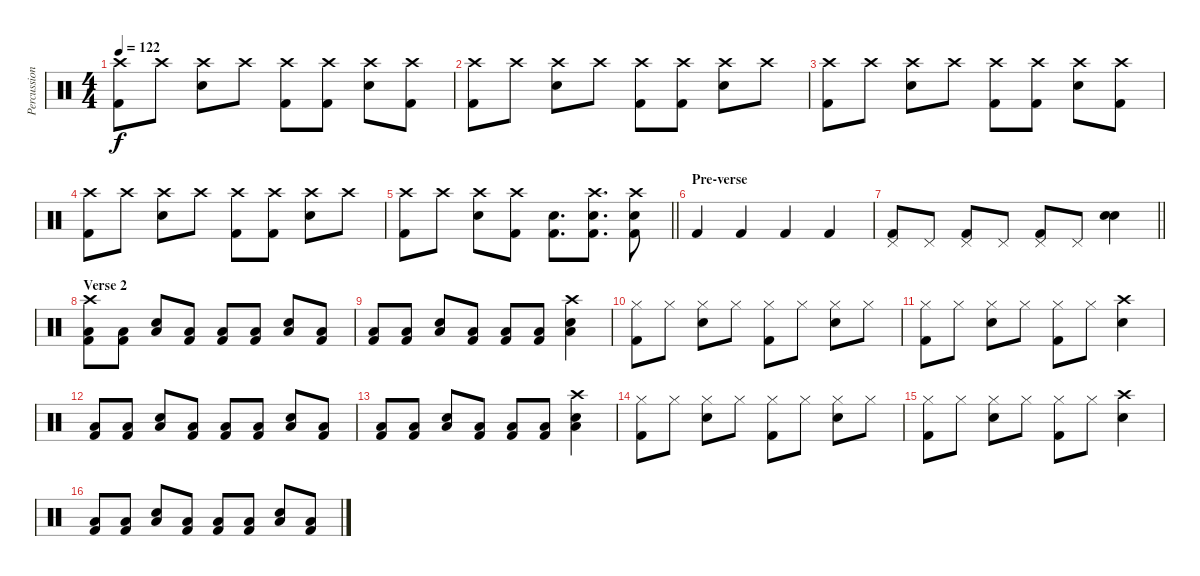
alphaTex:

\track ("Percussion" "Percussion") {instrument percussion}
\staff {score}
\articulation defaults
\ts (4 4)
\tempo 122
\clef neutral
\ks c
("Crash high (hit)" "Kick (hit) 2").8{dy f} "Crash high (hit)".8 ("Crash high (hit)" "Electric Snare (hit)").8 "Crash high (hit)".8 ("Crash high (hit)" "Kick (hit) 2").8 ("Crash high (hit)" "Kick (hit) 2").8 ("Crash high (hit)" "Electric Snare (hit)").8 ("Crash high (hit)" "Kick (hit) 2").8 |
("Crash high (hit)" "Kick (hit) 2").8 "Crash high (hit)".8 ("Crash high (hit)" "Electric Snare (hit)").8 "Crash high (hit)".8 ("Crash high (hit)" "Kick (hit) 2").8 ("Crash high (hit)" "Kick (hit) 2").8 ("Crash high (hit)" "Electric Snare (hit)").8 "Crash high (hit)".8 |
("Crash high (hit)" "Kick (hit) 2").8 "Crash high (hit)".8 ("Crash high (hit)" "Electric Snare (hit)").8 "Crash high (hit)".8 ("Crash high (hit)" "Kick (hit) 2").8 ("Crash high (hit)" "Kick (hit) 2").8 ("Crash high (hit)" "Electric Snare (hit)").8 ("Crash high (hit)" "Kick (hit) 2").8 |
("Crash high (hit)" "Kick (hit) 2").8 "Crash high (hit)".8 ("Crash high (hit)" "Electric Snare (hit)").8 "Crash high (hit)".8 ("Crash high (hit)" "Kick (hit) 2").8 ("Crash high (hit)" "Kick (hit) 2").8 ("Crash high (hit)" "Electric Snare (hit)").8 "Crash high (hit)".8 |
\barLineRight lightlight
("Crash high (hit)" "Kick (hit) 2").8 "Crash high (hit)".8 ("Crash high (hit)" "Electric Snare (hit)").8 ("Crash high (hit)" "Kick (hit) 2").8 ("Electric Snare (hit)" "Kick (hit) 2").8{d} ("Crash high (hit)" "Electric Snare (hit)" "Kick (hit) 2").8{d} ("Crash high (hit)" "Electric Snare (hit)" "Kick (hit) 2").8 |
\section ("" "Pre-verse")
"Kick (hit) 2".4 "Kick (hit) 2".4 "Kick (hit) 2".4 "Kick (hit) 2".4 |
\barLineRight lightlight
("Pedal Hi-Hat (hit)" "Kick (hit) 2").8 "Pedal Hi-Hat (hit)".8 ("Pedal Hi-Hat (hit)" "Kick (hit) 2").8 "Pedal Hi-Hat (hit)".8 ("Pedal Hi-Hat (hit)" "Kick (hit) 2").8 "Pedal Hi-Hat (hit)".8 ("Electric Snare (hit)" "Electric Snare (hit)").4 |
\section ("" "Verse 2")
("Crash high (hit)" "Low Floor Tom (hit)" "Kick (hit) 2").8 ("Low Floor Tom (hit)" "Kick (hit) 2").8 ("Electric Snare (hit)" "Low Floor Tom (hit)").8 ("Low Floor Tom (hit)" "Kick (hit) 2").8 ("Low Floor Tom (hit)" "Kick (hit) 2").8 ("Low Floor Tom (hit)" "Kick (hit) 2").8 ("Electric Snare (hit)" "Low Floor Tom (hit)").8 ("Low Floor Tom (hit)" "Kick (hit) 2").8 |
("Low Floor Tom (hit)" "Kick (hit) 2").8 ("Low Floor Tom (hit)" "Kick (hit) 2").8 ("Electric Snare (hit)" "Low Floor Tom (hit)").8 ("Low Floor Tom (hit)" "Kick (hit) 2").8 ("Low Floor Tom (hit)" "Kick (hit) 2").8 ("Low Floor Tom (hit)" "Kick (hit) 2").8 ("Crash high (hit)" "Electric Snare (hit)" "Low Floor Tom (hit)").4 |
("Hi-Hat (closed)" "Kick (hit) 2").8 "Hi-Hat (closed)".8 ("Hi-Hat (closed)" "Electric Snare (hit)").8 "Hi-Hat (closed)".8 ("Hi-Hat (closed)" "Kick (hit) 2").8 "Hi-Hat (closed)".8 ("Hi-Hat (closed)" "Electric Snare (hit)").8 "Hi-Hat (closed)".8 |
("Hi-Hat (closed)" "Kick (hit) 2").8 "Hi-Hat (closed)".8 ("Hi-Hat (closed)" "Electric Snare (hit)").8 "Hi-Hat (closed)".8 ("Hi-Hat (closed)" "Kick (hit) 2").8 "Hi-Hat (closed)".8 ("Crash high (hit)" "Electric Snare (hit)").4 |
("Low Floor Tom (hit)" "Kick (hit) 2").8 ("Low Floor Tom (hit)" "Kick (hit) 2").8 ("Electric Snare (hit)" "Low Floor Tom (hit)").8 ("Low Floor Tom (hit)" "Kick (hit) 2").8 ("Low Floor Tom (hit)" "Kick (hit) 2").8 ("Low Floor Tom (hit)" "Kick (hit) 2").8 ("Electric Snare (hit)" "Low Floor Tom (hit)").8 ("Low Floor Tom (hit)" "Kick (hit) 2").8 |
("Low Floor Tom (hit)" "Kick (hit) 2").8 ("Low Floor Tom (hit)" "Kick (hit) 2").8 ("Electric Snare (hit)" "Low Floor Tom (hit)").8 ("Low Floor Tom (hit)" "Kick (hit) 2").8 ("Low Floor Tom (hit)" "Kick (hit) 2").8 ("Low Floor Tom (hit)" "Kick (hit) 2").8 ("Crash high (hit)" "Electric Snare (hit)" "Low Floor Tom (hit)").4 |
("Hi-Hat (closed)" "Kick (hit) 2").8 "Hi-Hat (closed)".8 ("Hi-Hat (closed)" "Electric Snare (hit)").8 "Hi-Hat (closed)".8 ("Hi-Hat (closed)" "Kick (hit) 2").8 "Hi-Hat (closed)".8 ("Hi-Hat (closed)" "Electric Snare (hit)").8 "Hi-Hat (closed)".8 |
("Hi-Hat (closed)" "Kick (hit) 2").8 "Hi-Hat (closed)".8 ("Hi-Hat (closed)" "Electric Snare (hit)").8 "Hi-Hat (closed)".8 ("Hi-Hat (closed)" "Kick (hit) 2").8 "Hi-Hat (closed)".8 ("Crash high (hit)" "Electric Snare (hit)").4 |
("Low Floor Tom (hit)" "Kick (hit) 2").8 ("Low Floor Tom (hit)" "Kick (hit) 2").8 ("Electric Snare (hit)" "Low Floor Tom (hit)").8 ("Low Floor Tom (hit)" "Kick (hit) 2").8 ("Low Floor Tom (hit)" "Kick (hit) 2").8 ("Low Floor Tom (hit)" "Kick (hit) 2").8 ("Electric Snare (hit)" "Low Floor Tom (hit)").8 ("Low Floor Tom (hit)" "Kick (hit) 2").8
